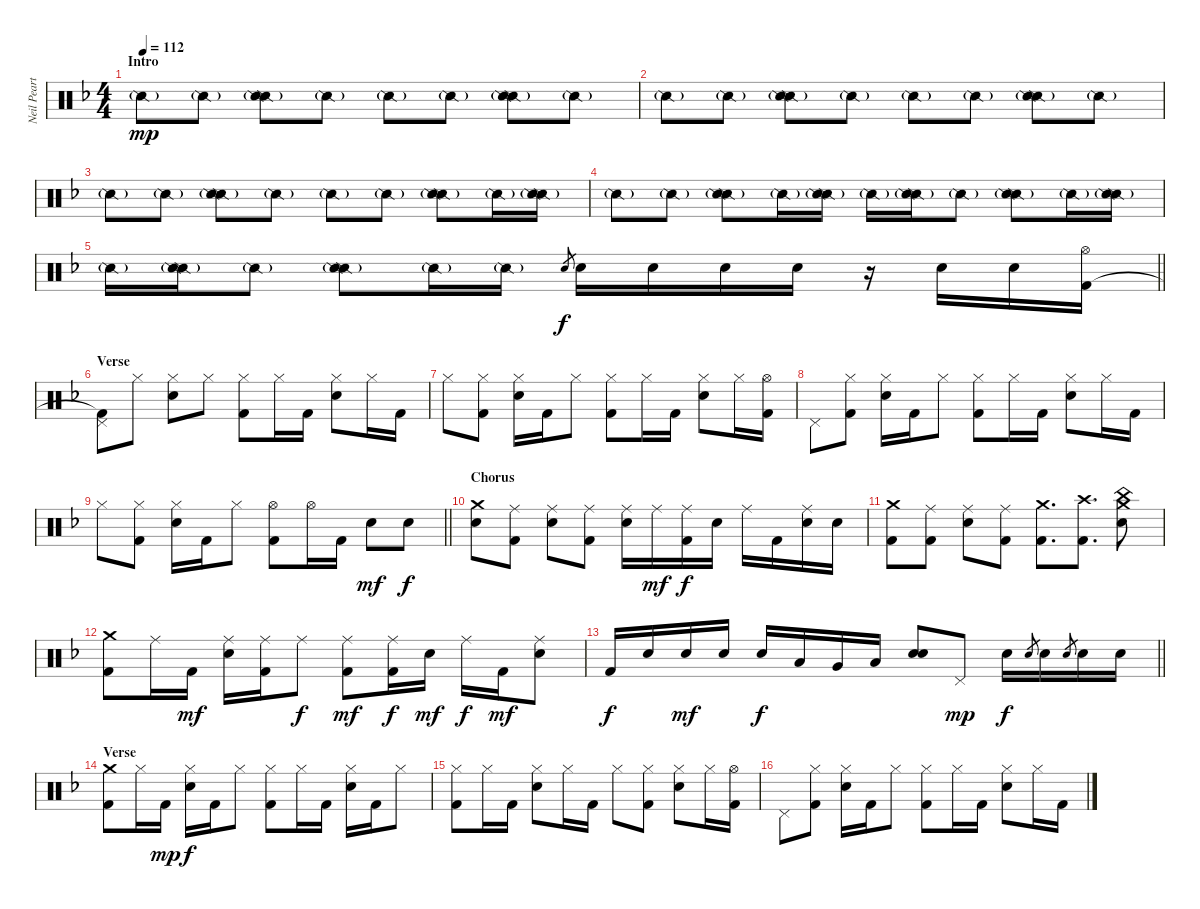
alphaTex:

\track ("Neil Peart" "Neil Peart") {instrument percussion}
\staff {score}
\articulation defaults
\ts (4 4)
\section ("" "Intro")
\tempo 112
\clef neutral
\ks dminor "Snare (side stick) 2"{g}.8{dy mp} "Snare (side stick) 2"{g}.8
("Snare (side stick) 2"{g} "Snare (side stick) 2").8 "Snare (side stick) 2"{g}.8 "Snare (side stick) 2"{g}.8 "Snare (side stick) 2"{g}.8 ("Snare (side stick) 2"{g} "Snare (side stick) 2").8 "Snare (side stick) 2"{g}.8 |
"Snare (side stick) 2"{g}.8 "Snare (side stick) 2"{g}.8 ("Snare (side stick) 2"{g} "Snare (side stick) 2").8 "Snare (side stick) 2"{g}.8 "Snare (side stick) 2"{g}.8 "Snare (side stick) 2"{g}.8 ("Snare (side stick) 2"{g} "Snare (side stick) 2").8 "Snare (side stick) 2"{g}.8 |
"Snare (side stick) 2"{g}.8 "Snare (side stick) 2"{g}.8 ("Snare (side stick) 2"{g} "Snare (side stick) 2").8 "Snare (side stick) 2"{g}.8 "Snare (side stick) 2"{g}.8 "Snare (side stick) 2"{g}.8 ("Snare (side stick) 2"{g} "Snare (side stick) 2").8 "Snare (side stick) 2"{g}.16 ("Snare (side stick) 2"{g} "Snare (side stick) 2").16 |
"Snare (side stick) 2"{g}.8 "Snare (side stick) 2"{g}.8 ("Snare (side stick) 2"{g} "Snare (side stick) 2").8 "Snare (side stick) 2"{g}.16 ("Snare (side stick) 2"{g} "Snare (side stick) 2").16 "Snare (side stick) 2"{g}.16 ("Snare (side stick) 2"{g} "Snare (side stick) 2").16 "Snare (side stick) 2"{g}.8 ("Snare (side stick) 2"{g} "Snare (side stick) 2").8 "Snare (side stick) 2"{g}.16 ("Snare (side stick) 2"{g} "Snare (side stick) 2").16 |
\barLineRight lightlight "Snare (side stick) 2"{g}.16
("Snare (side stick) 2"{g} "Snare (side stick) 2").16 "Snare (side stick) 2"{g}.8 ("Snare (side stick) 2"{g} "Snare (side stick) 2").8 "Snare (side stick) 2"{g}.16 "Snare (side stick) 2"{g}.16 "Electric Snare (hit)".8{gr dy f} "Electric Snare (hit)".16 "Electric Snare (hit)".16 "Electric Snare (hit)".16 "Electric Snare (hit)".16 r.16 "Electric Snare (hit)".16 "Electric Snare (hit)".16 ("Hi-Hat (open)" "Kick (hit) 2").16 |
\section ("" "Verse")
("Pedal Hi-Hat (hit)" "Kick (hit) 2"{t}).8 "Hi-Hat (closed)".8 ("Hi-Hat (closed)" "Electric Snare (hit)").8 "Hi-Hat (closed)".8 ("Hi-Hat (closed)" "Kick (hit) 2").8 "Hi-Hat (closed)".16 "Kick (hit) 2".16 ("Hi-Hat (closed)" "Electric Snare (hit)").8 "Hi-Hat (closed)".16 "Kick (hit) 2".16 |
"Hi-Hat (closed)".8 ("Hi-Hat (closed)" "Kick (hit) 2").8 ("Hi-Hat (closed)" "Electric Snare (hit)").16 "Kick (hit) 2".16 "Hi-Hat (closed)".8 ("Hi-Hat (closed)" "Kick (hit) 2").8 "Hi-Hat (closed)".16 "Kick (hit) 2".16 ("Hi-Hat (closed)" "Electric Snare (hit)").8 "Hi-Hat (closed)".16 ("Hi-Hat (open)" "Kick (hit) 2").16 |
"Pedal Hi-Hat (hit)".8 ("Hi-Hat (closed)" "Kick (hit) 2").8 ("Hi-Hat (closed)" "Electric Snare (hit)").16 "Kick (hit) 2".16 "Hi-Hat (closed)".8 ("Hi-Hat (closed)" "Kick (hit) 2").8 "Hi-Hat (closed)".16 "Kick (hit) 2".16 ("Hi-Hat (closed)" "Electric Snare (hit)").8 "Hi-Hat (closed)".16 "Kick (hit) 2".16 |
\barLineRight lightlight "Hi-Hat (closed)".8
("Hi-Hat (closed)" "Kick (hit) 2").8 ("Hi-Hat (closed)" "Electric Snare (hit)").16 "Kick (hit) 2".16 "Hi-Hat (closed)".8 ("Hi-Hat (open)" "Kick (hit) 2").8 "Hi-Hat (open)".16 "Kick (hit) 2".16 "Electric Snare (hit)".8{dy mf} "Electric Snare (hit)".8{dy f} |
\section ("" "Chorus")
("Crash medium (hit)" "Electric Snare (hit)").8 ("Ride (middle)" "Kick (hit) 2").8 ("Ride (middle)" "Electric Snare (hit)").8 ("Ride (middle)" "Kick (hit) 2").8 ("Ride (middle)" "Electric Snare (hit)").16 "Ride (middle)".16{dy mf} ("Ride (middle)" "Kick (hit) 2").16{dy f} "Electric Snare (hit)".16 "Ride (middle)".16 "Kick (hit) 2".16 ("Ride (middle)" "Electric Snare (hit)").16 "Electric Snare (hit)".16 |
("Crash medium (hit)" "Kick (hit) 2").8 ("Ride (middle)" "Kick (hit) 2").8 ("Ride (middle)" "Electric Snare (hit)").8 ("Ride (middle)" "Kick (hit) 2").8 ("Crash medium (hit)" "Kick (hit) 2").8{d} ("Crash high (hit)" "Kick (hit) 2").8{d} ("Crash medium (hit)" "China (hit)" "Electric Snare (hit)").8 |
("Crash medium (hit)" "Kick (hit) 2").8 "Ride (middle)".16 "Kick (hit) 2".16{dy mf} ("Ride (middle)" "Electric Snare (hit)").16 ("Ride (middle)" "Kick (hit) 2").16 "Ride (middle)".8{dy f} ("Ride (middle)" "Kick (hit) 2").8{dy mf} ("Ride (middle)" "Kick (hit) 2").16{dy f} "Electric Snare (hit)".16{dy mf} "Ride (middle)".16{dy f} "Kick (hit) 2".16{dy mf} ("Ride (middle)" "Electric Snare (hit)").8 |
\barLineRight lightlight "Kick (hit) 2".16{dy f} "Electric Snare (hit)".16 "Electric Snare (hit)".16{dy mf} "Electric Snare (hit)".16 "Electric Snare (hit)".16{dy f} "Low Tom (hit)".16 "Very Low Tom (hit)".16 "Low Floor Tom (hit)".16
("Electric Snare (hit)" "Electric Snare (hit)").8 "Pedal Hi-Hat (hit)".8{dy mp} "Electric Snare (hit)".16{dy f} "Electric Snare (hit)".8{gr} "Electric Snare (hit)".16 "Electric Snare (hit)".8{gr} "Electric Snare (hit)".16 "Electric Snare (hit)".16 |
\section ("" "Verse")
("Crash medium (hit)" "Kick (hit) 2").8 "Hi-Hat (closed)".16 "Kick (hit) 2".16{dy mp} ("Hi-Hat (closed)" "Electric Snare (hit)").16{dy f} "Kick (hit) 2".16 "Hi-Hat (closed)".8 ("Hi-Hat (closed)" "Kick (hit) 2").8 "Hi-Hat (closed)".16 "Kick (hit) 2".16 ("Hi-Hat (closed)" "Electric Snare (hit)").16 "Kick (hit) 2".16 "Hi-Hat (closed)".8 |
("Hi-Hat (closed)" "Kick (hit) 2").8 "Hi-Hat (closed)".16 "Kick (hit) 2".16 ("Hi-Hat (closed)" "Electric Snare (hit)").8 "Hi-Hat (closed)".16 "Kick (hit) 2".16 "Hi-Hat (closed)".8 ("Hi-Hat (closed)" "Kick (hit) 2").8 ("Hi-Hat (closed)" "Electric Snare (hit)").8 "Hi-Hat (closed)".16 ("Hi-Hat (open)" "Kick (hit) 2").16 |
"Pedal Hi-Hat (hit)".8 ("Hi-Hat (closed)" "Kick (hit) 2").8 ("Hi-Hat (closed)" "Electric Snare (hit)").16 "Kick (hit) 2".16 "Hi-Hat (closed)".8 ("Hi-Hat (closed)" "Kick (hit) 2").8 "Hi-Hat (closed)".16 "Kick (hit) 2".16 ("Hi-Hat (closed)" "Electric Snare (hit)").8 "Hi-Hat (closed)".16 "Kick (hit) 2".16
